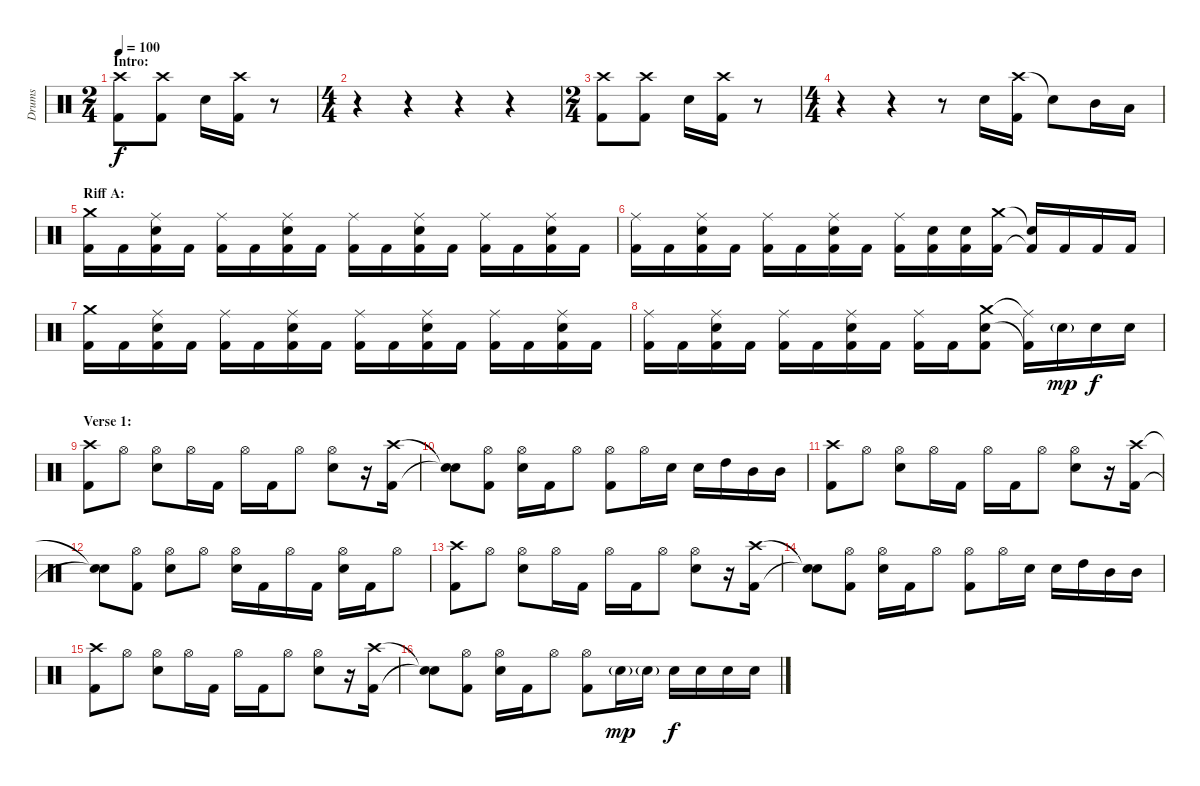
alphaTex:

\track ("Drums" "Drums") {instrument percussion}
\staff {score}
\articulation defaults
\ts (2 4)
\section ("" "Intro:")
\tempo 100
\clef neutral
\ks c
("Crash high (hit)" "Kick (hit) 2").8{dy f} ("Crash high (hit)" "Kick (hit) 2").8 "Electric Snare (hit)".16 ("Crash high (hit)" "Kick (hit) 2").16 r.8 |
\ts (4 4)
r.4 r.4 r.4 r.4 |
\ts (2 4)
("Crash high (hit)" "Kick (hit) 2").8 ("Crash high (hit)" "Kick (hit) 2").8 "Electric Snare (hit)".16 ("Crash high (hit)" "Kick (hit) 2").16 r.8 |
\ts (4 4)
r.4 r.4 r.8 "Electric Snare (hit)".16 ("Crash high (hit)" "Kick (hit) 2").16 "Snare (hit)"{t}.8 "Mid Tom (hit)".16 "Low Tom (hit)".16 |
\section ("" "Riff A:")
("Crash medium (hit)" "Kick (hit) 2").16 "Kick (hit) 2".16 ("Ride (middle)" "Electric Snare (hit)" "Kick (hit) 2").16 "Kick (hit) 2".16 ("Ride (middle)" "Kick (hit) 2").16 "Kick (hit) 2".16 ("Ride (middle)" "Electric Snare (hit)" "Kick (hit) 2").16 "Kick (hit) 2".16 ("Ride (middle)" "Kick (hit) 2").16 "Kick (hit) 2".16 ("Ride (middle)" "Electric Snare (hit)" "Kick (hit) 2").16 "Kick (hit) 2".16 ("Ride (middle)" "Kick (hit) 2").16 "Kick (hit) 2".16 ("Ride (middle)" "Electric Snare (hit)" "Kick (hit) 2").16 "Kick (hit) 2".16 |
("Ride (middle)" "Kick (hit) 2").16 "Kick (hit) 2".16 ("Ride (middle)" "Electric Snare (hit)" "Kick (hit) 2").16 "Kick (hit) 2".16 ("Ride (middle)" "Kick (hit) 2").16 "Kick (hit) 2".16 ("Ride (middle)" "Electric Snare (hit)" "Kick (hit) 2").16 "Kick (hit) 2".16 ("Ride (middle)" "Kick (hit) 2").16 ("Electric Snare (hit)" "Kick (hit) 2").16 ("Electric Snare (hit)" "Kick (hit) 2").16 ("Crash medium (hit)" "Kick (hit) 2").16 ("Snare (hit)"{t} "Kick (hit) 2"{t}).16 "Kick (hit) 2".16 "Kick (hit) 2".16 "Kick (hit) 2".16 |
("Crash medium (hit)" "Kick (hit) 2").16 "Kick (hit) 2".16 ("Ride (middle)" "Electric Snare (hit)" "Kick (hit) 2").16 "Kick (hit) 2".16 ("Ride (middle)" "Kick (hit) 2").16 "Kick (hit) 2".16 ("Ride (middle)" "Electric Snare (hit)" "Kick (hit) 2").16 "Kick (hit) 2".16 ("Ride (middle)" "Kick (hit) 2").16 "Kick (hit) 2".16 ("Ride (middle)" "Electric Snare (hit)" "Kick (hit) 2").16 "Kick (hit) 2".16 ("Ride (middle)" "Kick (hit) 2").16 "Kick (hit) 2".16 ("Ride (middle)" "Electric Snare (hit)" "Kick (hit) 2").16 "Kick (hit) 2".16 |
("Ride (middle)" "Kick (hit) 2").16 "Kick (hit) 2".16 ("Ride (middle)" "Electric Snare (hit)" "Kick (hit) 2").16 "Kick (hit) 2".16 ("Ride (middle)" "Kick (hit) 2").16 "Kick (hit) 2".16 ("Ride (middle)" "Electric Snare (hit)" "Kick (hit) 2").16 "Kick (hit) 2".16 ("Ride (middle)" "Kick (hit) 2").16 "Kick (hit) 2".16 ("Crash medium (hit)" "Electric Snare (hit)" "Kick (hit) 2").8 ("Ride (middle)"{t} "Kick (hit) 2"{t}).16 "Electric Snare (hit)"{g}.16{dy mp} "Electric Snare (hit)".16{dy f} "Electric Snare (hit)".16 |
\section ("" "Verse 1:")
("Crash high (hit)" "Kick (hit) 2").8 "Hi-Hat (open)".8 ("Hi-Hat (open)" "Electric Snare (hit)").8 "Hi-Hat (open)".16 "Kick (hit) 2".16 "Hi-Hat (open)".16 "Kick (hit) 2".16 "Hi-Hat (open)".8 ("Hi-Hat (open)" "Electric Snare (hit)").8 r.16 ("Crash high (hit)" "Kick (hit) 2").16 |
("Snare (hit)"{t} "Snare (hit)"{t}).8 ("Hi-Hat (open)" "Kick (hit) 2").8 ("Hi-Hat (open)" "Electric Snare (hit)").16 "Kick (hit) 2".16 "Hi-Hat (open)".8 ("Hi-Hat (open)" "Kick (hit) 2").8 "Hi-Hat (open)".16 "Electric Snare (hit)".16 "Electric Snare (hit)".16 "High Tom (hit)".16 "Mid Tom (hit)".16 "Mid Tom (hit)".16 |
("Crash high (hit)" "Kick (hit) 2").8 "Hi-Hat (open)".8 ("Hi-Hat (open)" "Electric Snare (hit)").8 "Hi-Hat (open)".16 "Kick (hit) 2".16 "Hi-Hat (open)".16 "Kick (hit) 2".16 "Hi-Hat (open)".8 ("Hi-Hat (open)" "Electric Snare (hit)").8 r.16 ("Crash high (hit)" "Kick (hit) 2").16 |
("Snare (hit)"{t} "Snare (hit)"{t}).8 ("Hi-Hat (open)" "Kick (hit) 2").8 ("Hi-Hat (open)" "Electric Snare (hit)").8 "Hi-Hat (open)".8 ("Hi-Hat (open)" "Electric Snare (hit)").16 "Kick (hit) 2".16 "Hi-Hat (open)".16 "Kick (hit) 2".16 ("Hi-Hat (open)" "Electric Snare (hit)").16 "Kick (hit) 2".16 "Hi-Hat (open)".8 |
("Crash high (hit)" "Kick (hit) 2").8 "Hi-Hat (open)".8 ("Hi-Hat (open)" "Electric Snare (hit)").8 "Hi-Hat (open)".16 "Kick (hit) 2".16 "Hi-Hat (open)".16 "Kick (hit) 2".16 "Hi-Hat (open)".8 ("Hi-Hat (open)" "Electric Snare (hit)").8 r.16 ("Crash high (hit)" "Kick (hit) 2").16 |
("Snare (hit)"{t} "Snare (hit)"{t}).8 ("Hi-Hat (open)" "Kick (hit) 2").8 ("Hi-Hat (open)" "Electric Snare (hit)").16 "Kick (hit) 2".16 "Hi-Hat (open)".8 ("Hi-Hat (open)" "Kick (hit) 2").8 "Hi-Hat (open)".16 "Electric Snare (hit)".16 "Electric Snare (hit)".16 "High Tom (hit)".16 "Mid Tom (hit)".16 "Mid Tom (hit)".16 |
("Crash high (hit)" "Kick (hit) 2").8 "Hi-Hat (open)".8 ("Hi-Hat (open)" "Electric Snare (hit)").8 "Hi-Hat (open)".16 "Kick (hit) 2".16 "Hi-Hat (open)".16 "Kick (hit) 2".16 "Hi-Hat (open)".8 ("Hi-Hat (open)" "Electric Snare (hit)").8 r.16 ("Crash high (hit)" "Kick (hit) 2").16 |
("Snare (hit)"{t} "Snare (hit)"{t}).8 ("Hi-Hat (open)" "Kick (hit) 2").8 ("Hi-Hat (open)" "Electric Snare (hit)").16 "Kick (hit) 2".16 "Hi-Hat (open)".8 ("Hi-Hat (open)" "Kick (hit) 2").8 "Electric Snare (hit)"{g}.16{dy mp} "Electric Snare (hit)"{g}.16 "Electric Snare (hit)".16{dy f} "Electric Snare (hit)".16 "Electric Snare (hit)".16 "Electric Snare (hit)".16
